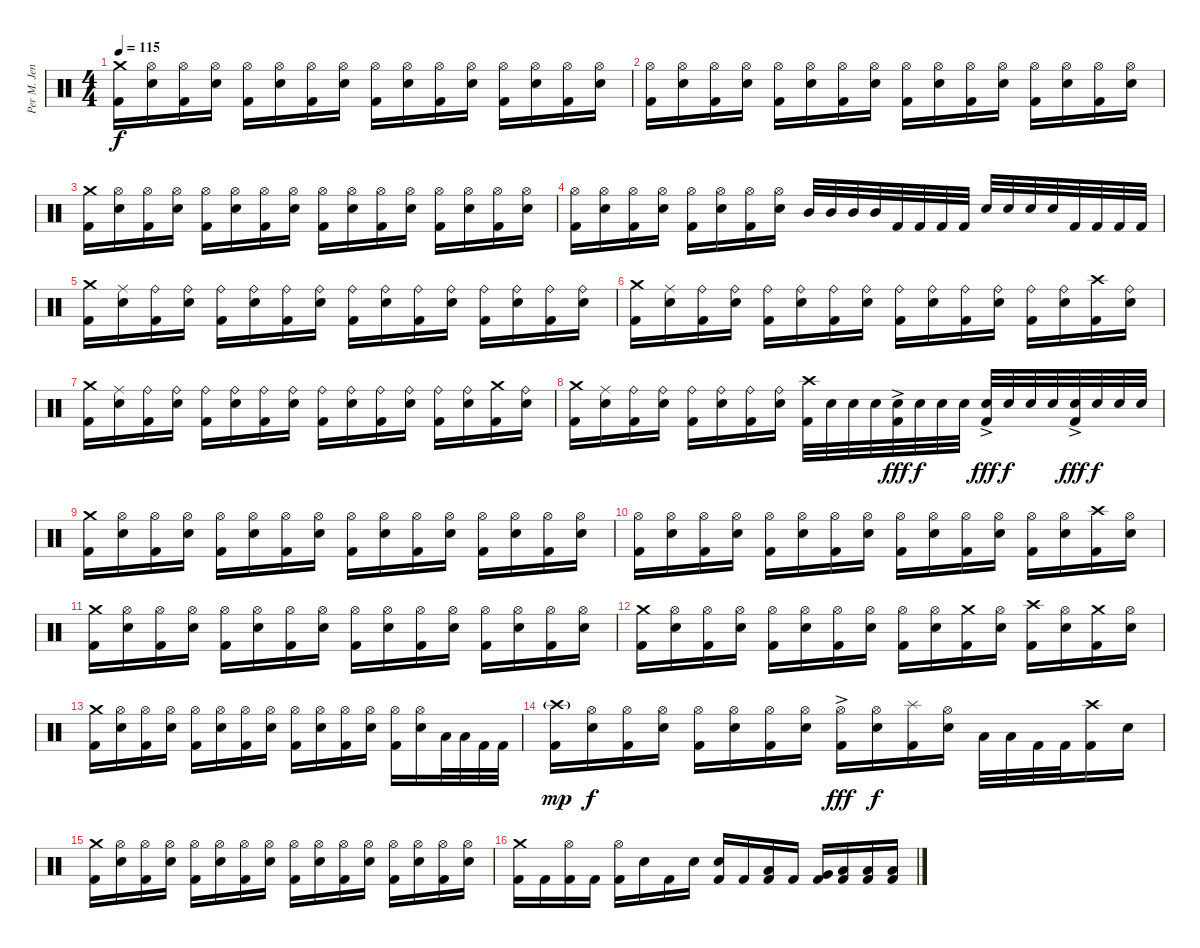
\track ("Per M. Jensen (Ex-Drums)" "Per M. Jen") {instrument percussion}
\staff {score}
\articulation defaults
\ts (4 4)
\tempo 115
\clef neutral
\ks c
("Crash medium (hit)" "Kick (hit) 2").16{dy f} ("Hi-Hat (open)" "Snare (hit) 2").16 ("Hi-Hat (open)" "Kick (hit) 2").16 ("Hi-Hat (open)" "Snare (hit) 2").16 ("Hi-Hat (open)" "Kick (hit) 2").16 ("Hi-Hat (open)" "Snare (hit) 2").16 ("Hi-Hat (open)" "Kick (hit) 2").16 ("Hi-Hat (open)" "Snare (hit) 2").16 ("Hi-Hat (open)" "Kick (hit) 2").16 ("Hi-Hat (open)" "Snare (hit) 2").16 ("Hi-Hat (open)" "Kick (hit) 2").16 ("Hi-Hat (open)" "Snare (hit) 2").16 ("Hi-Hat (open)" "Kick (hit) 2").16 ("Hi-Hat (open)" "Snare (hit) 2").16 ("Hi-Hat (open)" "Kick (hit) 2").16 ("Hi-Hat (open)" "Snare (hit) 2").16 |
("Hi-Hat (open)" "Kick (hit) 2").16 ("Hi-Hat (open)" "Snare (hit) 2").16 ("Hi-Hat (open)" "Kick (hit) 2").16 ("Hi-Hat (open)" "Snare (hit) 2").16 ("Hi-Hat (open)" "Kick (hit) 2").16 ("Hi-Hat (open)" "Snare (hit) 2").16 ("Hi-Hat (open)" "Kick (hit) 2").16 ("Hi-Hat (open)" "Snare (hit) 2").16 ("Hi-Hat (open)" "Kick (hit) 2").16 ("Hi-Hat (open)" "Snare (hit) 2").16 ("Hi-Hat (open)" "Kick (hit) 2").16 ("Hi-Hat (open)" "Snare (hit) 2").16 ("Hi-Hat (open)" "Kick (hit) 2").16 ("Hi-Hat (open)" "Snare (hit) 2").16 ("Hi-Hat (open)" "Kick (hit) 2").16 ("Hi-Hat (open)" "Snare (hit) 2").16 |
("Crash medium (hit)" "Kick (hit) 2").16 ("Hi-Hat (open)" "Snare (hit) 2").16 ("Hi-Hat (open)" "Kick (hit) 2").16 ("Hi-Hat (open)" "Snare (hit) 2").16 ("Hi-Hat (open)" "Kick (hit) 2").16 ("Hi-Hat (open)" "Snare (hit) 2").16 ("Hi-Hat (open)" "Kick (hit) 2").16 ("Hi-Hat (open)" "Snare (hit) 2").16 ("Hi-Hat (open)" "Kick (hit) 2").16 ("Hi-Hat (open)" "Snare (hit) 2").16 ("Hi-Hat (open)" "Kick (hit) 2").16 ("Hi-Hat (open)" "Snare (hit) 2").16 ("Hi-Hat (open)" "Kick (hit) 2").16 ("Hi-Hat (open)" "Snare (hit) 2").16 ("Hi-Hat (open)" "Kick (hit) 2").16 ("Hi-Hat (open)" "Snare (hit) 2").16 |
("Hi-Hat (open)" "Kick (hit) 2").16 ("Hi-Hat (open)" "Snare (hit) 2").16 ("Hi-Hat (open)" "Kick (hit) 2").16 ("Hi-Hat (open)" "Snare (hit) 2").16 ("Hi-Hat (open)" "Kick (hit) 2").16 ("Hi-Hat (open)" "Snare (hit) 2").16 ("Hi-Hat (open)" "Kick (hit) 2").16 ("Hi-Hat (open)" "Snare (hit) 2").16 "Mid Tom (hit)".32 "Mid Tom (hit)".32 "Mid Tom (hit)".32 "Mid Tom (hit)".32 "Kick (hit) 2".32 "Kick (hit) 2".32 "Kick (hit) 2".32 "Kick (hit) 2".32 "Snare (hit) 2".32 "Snare (hit) 2".32 "Snare (hit) 2".32 "Snare (hit) 2".32 "Kick (hit) 2".32 "Kick (hit) 2".32 "Kick (hit) 2".32 "Kick (hit) 2".32 |
("Crash medium (hit)" "Kick (hit) 2").16 ("Ride (middle)" "Snare (hit) 2").16 ("Ride (bell)" "Kick (hit) 2").16 ("Ride (bell)" "Snare (hit) 2").16 ("Ride (bell)" "Kick (hit) 2").16 ("Ride (bell)" "Snare (hit) 2").16 ("Ride (bell)" "Kick (hit) 2").16 ("Ride (bell)" "Snare (hit) 2").16 ("Ride (bell)" "Kick (hit) 2").16 ("Ride (bell)" "Snare (hit) 2").16 ("Ride (bell)" "Kick (hit) 2").16 ("Ride (bell)" "Snare (hit) 2").16 ("Ride (bell)" "Kick (hit) 2").16 ("Ride (bell)" "Snare (hit) 2").16 ("Ride (bell)" "Kick (hit) 2").16 ("Ride (bell)" "Snare (hit) 2").16 |
("Crash medium (hit)" "Kick (hit) 2").16 ("Ride (middle)" "Snare (hit) 2").16 ("Ride (bell)" "Kick (hit) 2").16 ("Ride (bell)" "Snare (hit) 2").16 ("Ride (bell)" "Kick (hit) 2").16 ("Ride (bell)" "Snare (hit) 2").16 ("Ride (bell)" "Kick (hit) 2").16 ("Ride (bell)" "Snare (hit) 2").16 ("Ride (bell)" "Kick (hit) 2").16 ("Ride (bell)" "Snare (hit) 2").16 ("Ride (bell)" "Kick (hit) 2").16 ("Ride (bell)" "Snare (hit) 2").16 ("Ride (bell)" "Kick (hit) 2").16 ("Ride (bell)" "Snare (hit) 2").16 ("Crash high (hit)" "Kick (hit) 2").16 ("Ride (bell)" "Snare (hit) 2").16 |
("Crash medium (hit)" "Kick (hit) 2").16 ("Ride (middle)" "Snare (hit) 2").16 ("Ride (bell)" "Kick (hit) 2").16 ("Ride (bell)" "Snare (hit) 2").16 ("Ride (bell)" "Kick (hit) 2").16 ("Ride (bell)" "Snare (hit) 2").16 ("Ride (bell)" "Kick (hit) 2").16 ("Ride (bell)" "Snare (hit) 2").16 ("Ride (bell)" "Kick (hit) 2").16 ("Ride (bell)" "Snare (hit) 2").16 ("Ride (bell)" "Kick (hit) 2").16 ("Ride (bell)" "Snare (hit) 2").16 ("Ride (bell)" "Kick (hit) 2").16 ("Ride (bell)" "Snare (hit) 2").16 ("Crash medium (hit)" "Kick (hit) 2").16 ("Ride (bell)" "Snare (hit) 2").16 |
("Crash medium (hit)" "Kick (hit) 2").16 ("Ride (middle)" "Snare (hit) 2").16 ("Ride (bell)" "Kick (hit) 2").16 ("Ride (bell)" "Snare (hit) 2").16 ("Ride (bell)" "Kick (hit) 2").16 ("Ride (bell)" "Snare (hit) 2").16 ("Ride (bell)" "Kick (hit) 2").16 ("Ride (bell)" "Snare (hit) 2").16 ("Crash high (hit)" "Kick (hit) 2").32 "Snare (hit) 2".32 "Snare (hit) 2".32 "Snare (hit) 2".32 ("Snare (hit) 2" "Kick (hit) 2"{ac}).32{dy fff} "Snare (hit) 2".32{dy f} "Snare (hit) 2".32 "Snare (hit) 2".32 ("Snare (hit) 2" "Kick (hit) 2"{ac}).32{dy fff} "Snare (hit) 2".32{dy f} "Snare (hit) 2".32 "Snare (hit) 2".32 ("Snare (hit) 2" "Kick (hit) 2"{ac}).32{dy fff} "Snare (hit) 2".32{dy f} "Snare (hit) 2".32 "Snare (hit) 2".32 |
("Crash medium (hit)" "Kick (hit) 2").16 ("Hi-Hat (open)" "Snare (hit) 2").16 ("Hi-Hat (open)" "Kick (hit) 2").16 ("Hi-Hat (open)" "Snare (hit) 2").16 ("Hi-Hat (open)" "Kick (hit) 2").16 ("Hi-Hat (open)" "Snare (hit) 2").16 ("Hi-Hat (open)" "Kick (hit) 2").16 ("Hi-Hat (open)" "Snare (hit) 2").16 ("Hi-Hat (open)" "Kick (hit) 2").16 ("Hi-Hat (open)" "Snare (hit) 2").16 ("Hi-Hat (open)" "Kick (hit) 2").16 ("Hi-Hat (open)" "Snare (hit) 2").16 ("Hi-Hat (open)" "Kick (hit) 2").16 ("Hi-Hat (open)" "Snare (hit) 2").16 ("Hi-Hat (open)" "Kick (hit) 2").16 ("Hi-Hat (open)" "Snare (hit) 2").16 |
("Hi-Hat (open)" "Kick (hit) 2").16 ("Hi-Hat (open)" "Snare (hit) 2").16 ("Hi-Hat (open)" "Kick (hit) 2").16 ("Hi-Hat (open)" "Snare (hit) 2").16 ("Hi-Hat (open)" "Kick (hit) 2").16 ("Hi-Hat (open)" "Snare (hit) 2").16 ("Hi-Hat (open)" "Kick (hit) 2").16 ("Hi-Hat (open)" "Snare (hit) 2").16 ("Hi-Hat (open)" "Kick (hit) 2").16 ("Hi-Hat (open)" "Snare (hit) 2").16 ("Hi-Hat (open)" "Kick (hit) 2").16 ("Hi-Hat (open)" "Snare (hit) 2").16 ("Hi-Hat (open)" "Kick (hit) 2").16 ("Hi-Hat (open)" "Snare (hit) 2").16 ("Crash high (hit)" "Kick (hit) 2").16 ("Hi-Hat (open)" "Snare (hit) 2").16 |
("Crash medium (hit)" "Kick (hit) 2").16 ("Hi-Hat (open)" "Snare (hit) 2").16 ("Hi-Hat (open)" "Kick (hit) 2").16 ("Hi-Hat (open)" "Snare (hit) 2").16 ("Hi-Hat (open)" "Kick (hit) 2").16 ("Hi-Hat (open)" "Snare (hit) 2").16 ("Hi-Hat (open)" "Kick (hit) 2").16 ("Hi-Hat (open)" "Snare (hit) 2").16 ("Hi-Hat (open)" "Kick (hit) 2").16 ("Hi-Hat (open)" "Snare (hit) 2").16 ("Hi-Hat (open)" "Kick (hit) 2").16 ("Hi-Hat (open)" "Snare (hit) 2").16 ("Hi-Hat (open)" "Kick (hit) 2").16 ("Hi-Hat (open)" "Snare (hit) 2").16 ("Hi-Hat (open)" "Kick (hit) 2").16 ("Hi-Hat (open)" "Snare (hit) 2").16 |
("Crash medium (hit)" "Kick (hit) 2").16 ("Hi-Hat (open)" "Snare (hit) 2").16 ("Hi-Hat (open)" "Kick (hit) 2").16 ("Hi-Hat (open)" "Snare (hit) 2").16 ("Hi-Hat (open)" "Kick (hit) 2").16 ("Hi-Hat (open)" "Snare (hit) 2").16 ("Hi-Hat (open)" "Kick (hit) 2").16 ("Hi-Hat (open)" "Snare (hit) 2").16 ("Hi-Hat (open)" "Kick (hit) 2").16 ("Hi-Hat (open)" "Snare (hit) 2").16 ("Crash medium (hit)" "Kick (hit) 2").16 ("Hi-Hat (open)" "Snare (hit) 2").16 ("Crash high (hit)" "Kick (hit) 2").16 ("Hi-Hat (open)" "Snare (hit) 2").16 ("Crash medium (hit)" "Kick (hit) 2").16 ("Hi-Hat (open)" "Snare (hit) 2").16 |
("Crash medium (hit)" "Kick (hit) 2").16 ("Hi-Hat (open)" "Snare (hit) 2").16 ("Hi-Hat (open)" "Kick (hit) 2").16 ("Hi-Hat (open)" "Snare (hit) 2").16 ("Hi-Hat (open)" "Kick (hit) 2").16 ("Hi-Hat (open)" "Snare (hit) 2").16 ("Hi-Hat (open)" "Kick (hit) 2").16 ("Hi-Hat (open)" "Snare (hit) 2").16 ("Hi-Hat (open)" "Kick (hit) 2").16 ("Hi-Hat (open)" "Snare (hit) 2").16 ("Hi-Hat (open)" "Kick (hit) 2").16 ("Hi-Hat (open)" "Snare (hit) 2").16 ("Hi-Hat (open)" "Kick (hit) 2").16 ("Hi-Hat (open)" "Snare (hit) 2").16 "Low Tom (hit)".32 "Low Floor Tom (hit)".32 "Kick (hit) 2".32 "Kick (hit) 2".32 |
("Crash high (hit)"{g} "Kick (hit) 2").16{dy mp} ("Hi-Hat (open)" "Snare (hit) 2").16{dy f} ("Hi-Hat (open)" "Kick (hit) 2").16 ("Hi-Hat (open)" "Snare (hit) 2").16 ("Hi-Hat (open)" "Kick (hit) 2").16 ("Hi-Hat (open)" "Snare (hit) 2").16 ("Hi-Hat (open)" "Kick (hit) 2").16 ("Hi-Hat (open)" "Snare (hit) 2").16 ("Hi-Hat (open)"{ac} "Kick (hit) 2").16{dy fff} ("Hi-Hat (open)" "Snare (hit) 2").16{dy f} ("Splash (hit)" "Kick (hit) 2").16 ("Hi-Hat (open)" "Snare (hit) 2").16 "Low Tom (hit)".32 "Low Floor Tom (hit)".32 "Kick (hit) 2".32 "Kick (hit) 2".32 ("Crash high (hit)" "Kick (hit) 2").16 "Snare (hit) 2".16 |
("Crash medium (hit)" "Kick (hit) 2").16 ("Hi-Hat (open)" "Snare (hit) 2").16 ("Hi-Hat (open)" "Kick (hit) 2").16 ("Hi-Hat (open)" "Snare (hit) 2").16 ("Hi-Hat (open)" "Kick (hit) 2").16 ("Hi-Hat (open)" "Snare (hit) 2").16 ("Hi-Hat (open)" "Kick (hit) 2").16 ("Hi-Hat (open)" "Snare (hit) 2").16 ("Hi-Hat (open)" "Kick (hit) 2").16 ("Hi-Hat (open)" "Snare (hit) 2").16 ("Hi-Hat (open)" "Kick (hit) 2").16 ("Hi-Hat (open)" "Snare (hit) 2").16 ("Hi-Hat (open)" "Kick (hit) 2").16 ("Hi-Hat (open)" "Snare (hit) 2").16 ("Hi-Hat (open)" "Kick (hit) 2").16 ("Hi-Hat (open)" "Snare (hit) 2").16 |
("Crash medium (hit)" "Kick (hit) 2").16 "Kick (hit) 2".16 ("Hi-Hat (open)" "Kick (hit) 2").16 "Kick (hit) 2".16 ("Hi-Hat (open)" "Kick (hit) 2").16 "Snare (hit) 2".16 "Kick (hit) 2".16 "Snare (hit) 2".16 ("Snare (hit) 2" "Kick (hit) 2").16 "Kick (hit) 2".16 ("Low Tom (hit)" "Kick (hit) 2").16 "Kick (hit) 2".16 ("Very Low Tom (hit)" "Kick (hit) 2").16 ("Low Floor Tom (hit)" "Kick (hit) 2").16 ("Low Floor Tom (hit)" "Kick (hit) 2").16 ("Low Floor Tom (hit)" "Kick (hit) 2").16
